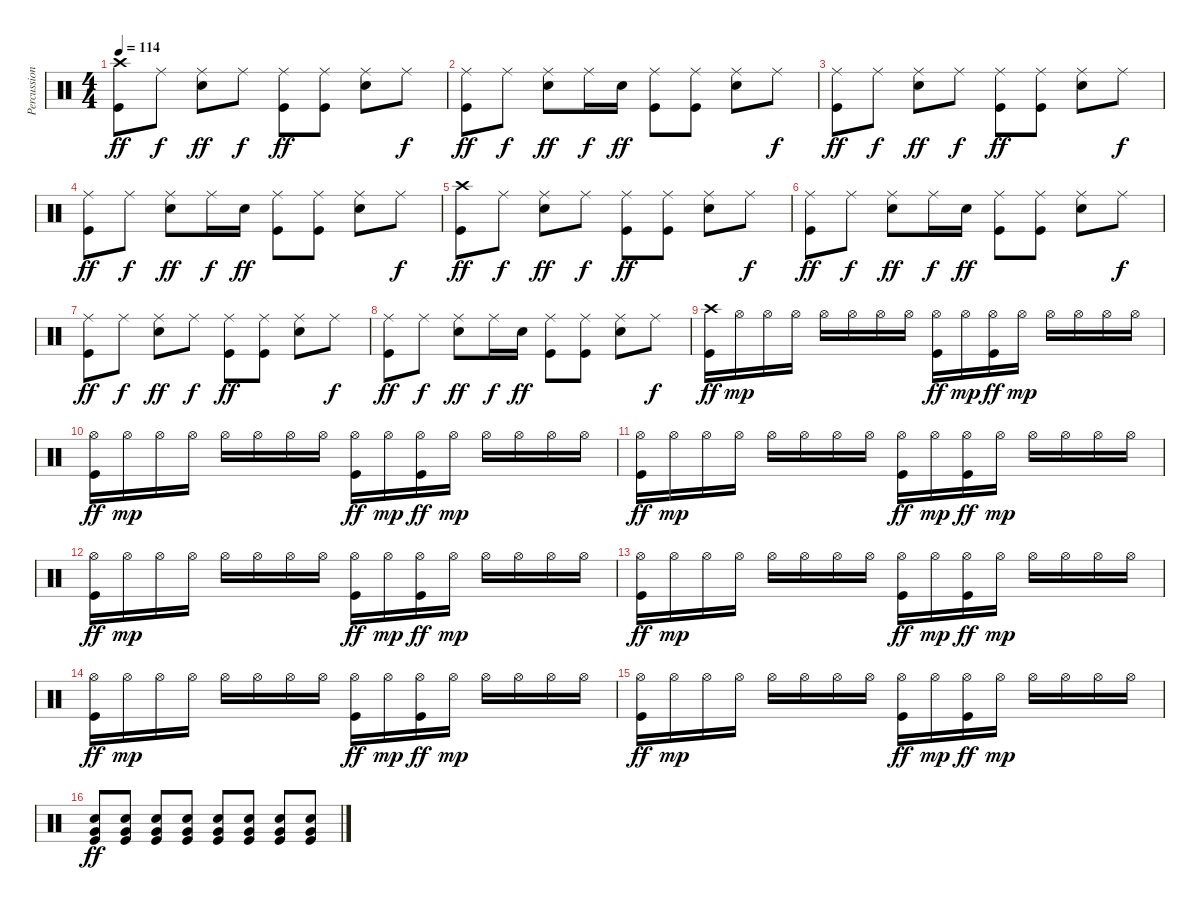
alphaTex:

\track ("Percussion" "Percussion") {instrument percussion}
\staff {score}
\articulation defaults
\ts (4 4)
\tempo 114
\clef neutral
\ks c
("Crash high (hit)" "Kick (hit)").8{dy ff} "Ride (middle)".8{dy f} ("Ride (middle)" "Snare (hit) 2").8{dy ff} "Ride (middle)".8{dy f} ("Ride (middle)" "Kick (hit)").8{dy ff} ("Ride (middle)" "Kick (hit)").8 ("Ride (middle)" "Snare (hit) 2").8 "Ride (middle)".8{dy f} |
("Ride (middle)" "Kick (hit)").8{dy ff} "Ride (middle)".8{dy f} ("Ride (middle)" "Snare (hit) 2").8{dy ff} "Ride (middle)".16{dy f} "Snare (hit) 2".16{dy ff} ("Ride (middle)" "Kick (hit)").8 ("Ride (middle)" "Kick (hit)").8 ("Ride (middle)" "Snare (hit) 2").8 "Ride (middle)".8{dy f} |
("Ride (middle)" "Kick (hit)").8{dy ff} "Ride (middle)".8{dy f} ("Ride (middle)" "Snare (hit) 2").8{dy ff} "Ride (middle)".8{dy f} ("Ride (middle)" "Kick (hit)").8{dy ff} ("Ride (middle)" "Kick (hit)").8 ("Ride (middle)" "Snare (hit) 2").8 "Ride (middle)".8{dy f} |
("Ride (middle)" "Kick (hit)").8{dy ff} "Ride (middle)".8{dy f} ("Ride (middle)" "Snare (hit) 2").8{dy ff} "Ride (middle)".16{dy f} "Snare (hit) 2".16{dy ff} ("Ride (middle)" "Kick (hit)").8 ("Ride (middle)" "Kick (hit)").8 ("Ride (middle)" "Snare (hit) 2").8 "Ride (middle)".8{dy f} |
("Crash high (hit)" "Kick (hit)").8{dy ff} "Ride (middle)".8{dy f} ("Ride (middle)" "Snare (hit) 2").8{dy ff} "Ride (middle)".8{dy f} ("Ride (middle)" "Kick (hit)").8{dy ff} ("Ride (middle)" "Kick (hit)").8 ("Ride (middle)" "Snare (hit) 2").8 "Ride (middle)".8{dy f} |
("Ride (middle)" "Kick (hit)").8{dy ff} "Ride (middle)".8{dy f} ("Ride (middle)" "Snare (hit) 2").8{dy ff} "Ride (middle)".16{dy f} "Snare (hit) 2".16{dy ff} ("Ride (middle)" "Kick (hit)").8 ("Ride (middle)" "Kick (hit)").8 ("Ride (middle)" "Snare (hit) 2").8 "Ride (middle)".8{dy f} |
("Ride (middle)" "Kick (hit)").8{dy ff} "Ride (middle)".8{dy f} ("Ride (middle)" "Snare (hit) 2").8{dy ff} "Ride (middle)".8{dy f} ("Ride (middle)" "Kick (hit)").8{dy ff} ("Ride (middle)" "Kick (hit)").8 ("Ride (middle)" "Snare (hit) 2").8 "Ride (middle)".8{dy f} |
("Ride (middle)" "Kick (hit)").8{dy ff} "Ride (middle)".8{dy f} ("Ride (middle)" "Snare (hit) 2").8{dy ff} "Ride (middle)".16{dy f} "Snare (hit) 2".16{dy ff} ("Ride (middle)" "Kick (hit)").8 ("Ride (middle)" "Kick (hit)").8 ("Ride (middle)" "Snare (hit) 2").8 "Ride (middle)".8{dy f} |
("Crash high (hit)" "Kick (hit)").16{dy ff} "Hi-Hat (open)".16{dy mp} "Hi-Hat (open)".16 "Hi-Hat (open)".16 "Hi-Hat (open)".16 "Hi-Hat (open)".16 "Hi-Hat (open)".16 "Hi-Hat (open)".16 ("Hi-Hat (open)" "Kick (hit)").16{dy ff} "Hi-Hat (open)".16{dy mp} ("Hi-Hat (open)" "Kick (hit)").16{dy ff} "Hi-Hat (open)".16{dy mp} "Hi-Hat (open)".16 "Hi-Hat (open)".16 "Hi-Hat (open)".16 "Hi-Hat (open)".16 |
("Hi-Hat (open)" "Kick (hit)").16{dy ff} "Hi-Hat (open)".16{dy mp} "Hi-Hat (open)".16 "Hi-Hat (open)".16 "Hi-Hat (open)".16 "Hi-Hat (open)".16 "Hi-Hat (open)".16 "Hi-Hat (open)".16 ("Hi-Hat (open)" "Kick (hit)").16{dy ff} "Hi-Hat (open)".16{dy mp} ("Hi-Hat (open)" "Kick (hit)").16{dy ff} "Hi-Hat (open)".16{dy mp} "Hi-Hat (open)".16 "Hi-Hat (open)".16 "Hi-Hat (open)".16 "Hi-Hat (open)".16 |
("Hi-Hat (open)" "Kick (hit)").16{dy ff} "Hi-Hat (open)".16{dy mp} "Hi-Hat (open)".16 "Hi-Hat (open)".16 "Hi-Hat (open)".16 "Hi-Hat (open)".16 "Hi-Hat (open)".16 "Hi-Hat (open)".16 ("Hi-Hat (open)" "Kick (hit)").16{dy ff} "Hi-Hat (open)".16{dy mp} ("Hi-Hat (open)" "Kick (hit)").16{dy ff} "Hi-Hat (open)".16{dy mp} "Hi-Hat (open)".16 "Hi-Hat (open)".16 "Hi-Hat (open)".16 "Hi-Hat (open)".16 |
("Hi-Hat (open)" "Kick (hit)").16{dy ff} "Hi-Hat (open)".16{dy mp} "Hi-Hat (open)".16 "Hi-Hat (open)".16 "Hi-Hat (open)".16 "Hi-Hat (open)".16 "Hi-Hat (open)".16 "Hi-Hat (open)".16 ("Hi-Hat (open)" "Kick (hit)").16{dy ff} "Hi-Hat (open)".16{dy mp} ("Hi-Hat (open)" "Kick (hit)").16{dy ff} "Hi-Hat (open)".16{dy mp} "Hi-Hat (open)".16 "Hi-Hat (open)".16 "Hi-Hat (open)".16 "Hi-Hat (open)".16 |
("Hi-Hat (open)" "Kick (hit)").16{dy ff} "Hi-Hat (open)".16{dy mp} "Hi-Hat (open)".16 "Hi-Hat (open)".16 "Hi-Hat (open)".16 "Hi-Hat (open)".16 "Hi-Hat (open)".16 "Hi-Hat (open)".16 ("Hi-Hat (open)" "Kick (hit)").16{dy ff} "Hi-Hat (open)".16{dy mp} ("Hi-Hat (open)" "Kick (hit)").16{dy ff} "Hi-Hat (open)".16{dy mp} "Hi-Hat (open)".16 "Hi-Hat (open)".16 "Hi-Hat (open)".16 "Hi-Hat (open)".16 |
("Hi-Hat (open)" "Kick (hit)").16{dy ff} "Hi-Hat (open)".16{dy mp} "Hi-Hat (open)".16 "Hi-Hat (open)".16 "Hi-Hat (open)".16 "Hi-Hat (open)".16 "Hi-Hat (open)".16 "Hi-Hat (open)".16 ("Hi-Hat (open)" "Kick (hit)").16{dy ff} "Hi-Hat (open)".16{dy mp} ("Hi-Hat (open)" "Kick (hit)").16{dy ff} "Hi-Hat (open)".16{dy mp} "Hi-Hat (open)".16 "Hi-Hat (open)".16 "Hi-Hat (open)".16 "Hi-Hat (open)".16 |
("Hi-Hat (open)" "Kick (hit)").16{dy ff} "Hi-Hat (open)".16{dy mp} "Hi-Hat (open)".16 "Hi-Hat (open)".16 "Hi-Hat (open)".16 "Hi-Hat (open)".16 "Hi-Hat (open)".16 "Hi-Hat (open)".16 ("Hi-Hat (open)" "Kick (hit)").16{dy ff} "Hi-Hat (open)".16{dy mp} ("Hi-Hat (open)" "Kick (hit)").16{dy ff} "Hi-Hat (open)".16{dy mp} "Hi-Hat (open)".16 "Hi-Hat (open)".16 "Hi-Hat (open)".16 "Hi-Hat (open)".16 |
("Snare (hit) 2" "Very Low Tom (hit)" "Kick (hit)").8{dy ff} ("Snare (hit) 2" "Very Low Tom (hit)" "Kick (hit)").8 ("Snare (hit) 2" "Very Low Tom (hit)" "Kick (hit)").8 ("Snare (hit) 2" "Very Low Tom (hit)" "Kick (hit)").8 ("Snare (hit) 2" "Very Low Tom (hit)" "Kick (hit)").8 ("Snare (hit) 2" "Very Low Tom (hit)" "Kick (hit)").8 ("Snare (hit) 2" "Very Low Tom (hit)" "Kick (hit)").8 ("Snare (hit) 2" "Very Low Tom (hit)" "Kick (hit)").8
